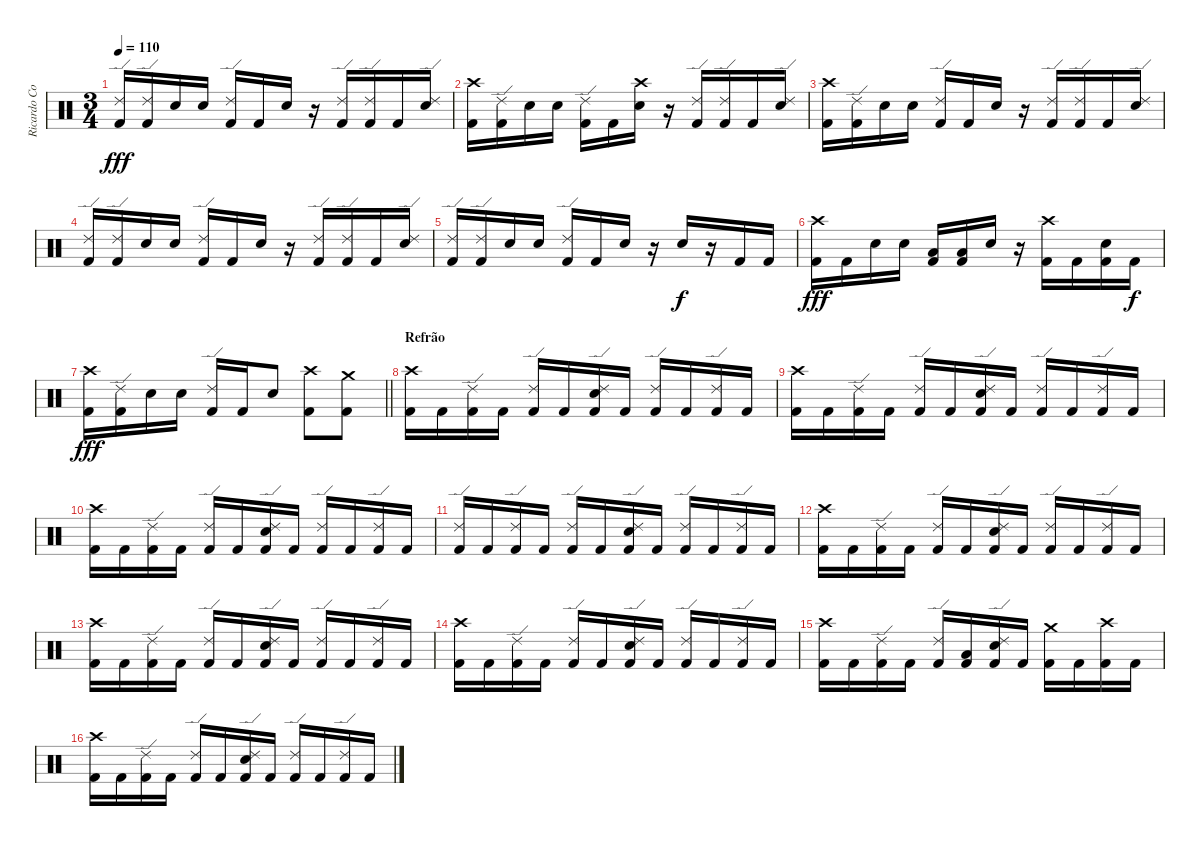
\track ("Ricardo Confessori" "Ricardo Co") {instrument percussion}
\staff {score}
\articulation defaults
\ts (3 4)
\tempo 110
\clef neutral
\ks c
("Ride (edge) 2" "Kick (hit) 2").16{dy fff} ("Ride (edge) 2" "Kick (hit) 2").16 "Electric Snare (hit)".16 "Electric Snare (hit)".16 ("Ride (edge) 2" "Kick (hit) 2").16 "Kick (hit) 2".16 "Electric Snare (hit)".16 r.16 ("Ride (edge) 2" "Kick (hit) 2").16 ("Ride (edge) 2" "Kick (hit) 2").16 "Kick (hit) 2".16 ("Ride (edge) 2" "Electric Snare (hit)").16 |
("Crash high (hit)" "Kick (hit) 2").16 ("Ride (edge) 2" "Kick (hit) 2").16 "Electric Snare (hit)".16 "Electric Snare (hit)".16 ("Ride (edge) 2" "Kick (hit) 2").16 "Kick (hit) 2".16 ("Crash high (hit)" "Electric Snare (hit)").16 r.16 ("Ride (edge) 2" "Kick (hit) 2").16 ("Ride (edge) 2" "Kick (hit) 2").16 "Kick (hit) 2".16 ("Ride (edge) 2" "Electric Snare (hit)").16 |
("Crash high (hit)" "Kick (hit) 2").16 ("Ride (edge) 2" "Kick (hit) 2").16 "Electric Snare (hit)".16 "Electric Snare (hit)".16 ("Ride (edge) 2" "Kick (hit) 2").16 "Kick (hit) 2".16 "Electric Snare (hit)".16 r.16 ("Ride (edge) 2" "Kick (hit) 2").16 ("Ride (edge) 2" "Kick (hit) 2").16 "Kick (hit) 2".16 ("Ride (edge) 2" "Electric Snare (hit)").16 |
("Ride (edge) 2" "Kick (hit) 2").16 ("Ride (edge) 2" "Kick (hit) 2").16 "Electric Snare (hit)".16 "Electric Snare (hit)".16 ("Ride (edge) 2" "Kick (hit) 2").16 "Kick (hit) 2".16 "Electric Snare (hit)".16 r.16 ("Ride (edge) 2" "Kick (hit) 2").16 ("Ride (edge) 2" "Kick (hit) 2").16 "Kick (hit) 2".16 ("Ride (edge) 2" "Electric Snare (hit)").16 |
("Ride (edge) 2" "Kick (hit) 2").16 ("Ride (edge) 2" "Kick (hit) 2").16 "Electric Snare (hit)".16 "Electric Snare (hit)".16 ("Ride (edge) 2" "Kick (hit) 2").16 "Kick (hit) 2".16 "Electric Snare (hit)".16 r.16 "Electric Snare (hit)".16{dy f} r.16 "Kick (hit) 2".16 "Kick (hit) 2".16 |
("Crash high (hit)" "Kick (hit) 2").16{dy fff} "Kick (hit) 2".16 "Electric Snare (hit)".16 "Electric Snare (hit)".16 ("Low Tom (hit)" "Kick (hit) 2").16 ("Low Tom (hit)" "Kick (hit) 2").16 "Electric Snare (hit)".16 r.16 ("Crash high (hit)" "Kick (hit) 2").16 "Kick (hit) 2".16 ("Electric Snare (hit)" "Kick (hit) 2").16 "Kick (hit) 2".16{dy f} |
\barLineRight lightlight
("Crash high (hit)" "Kick (hit) 2").16{dy fff} ("Ride (edge) 2" "Kick (hit) 2").16 "Electric Snare (hit)".16 "Electric Snare (hit)".16 ("Ride (edge) 2" "Kick (hit) 2").16 "Kick (hit) 2".16 "Electric Snare (hit)".8 ("Crash high (hit)" "Kick (hit) 2").8 ("Crash medium (hit)" "Kick (hit) 2").8 |
\section ("" "Refrão")
("Crash high (hit)" "Kick (hit) 2").16 "Kick (hit) 2".16 ("Ride (edge) 2" "Kick (hit) 2").16 "Kick (hit) 2".16 ("Ride (edge) 2" "Kick (hit) 2").16 "Kick (hit) 2".16 ("Ride (edge) 2" "Electric Snare (hit)" "Kick (hit) 2").16 "Kick (hit) 2".16 ("Ride (edge) 2" "Kick (hit) 2").16 "Kick (hit) 2".16 ("Ride (edge) 2" "Kick (hit) 2").16 "Kick (hit) 2".16 |
("Crash high (hit)" "Kick (hit) 2").16 "Kick (hit) 2".16 ("Ride (edge) 2" "Kick (hit) 2").16 "Kick (hit) 2".16 ("Ride (edge) 2" "Kick (hit) 2").16 "Kick (hit) 2".16 ("Ride (edge) 2" "Electric Snare (hit)" "Kick (hit) 2").16 "Kick (hit) 2".16 ("Ride (edge) 2" "Kick (hit) 2").16 "Kick (hit) 2".16 ("Ride (edge) 2" "Kick (hit) 2").16 "Kick (hit) 2".16 |
("Crash high (hit)" "Kick (hit) 2").16 "Kick (hit) 2".16 ("Ride (edge) 2" "Kick (hit) 2").16 "Kick (hit) 2".16 ("Ride (edge) 2" "Kick (hit) 2").16 "Kick (hit) 2".16 ("Ride (edge) 2" "Electric Snare (hit)" "Kick (hit) 2").16 "Kick (hit) 2".16 ("Ride (edge) 2" "Kick (hit) 2").16 "Kick (hit) 2".16 ("Ride (edge) 2" "Kick (hit) 2").16 "Kick (hit) 2".16 |
("Ride (edge) 2" "Kick (hit) 2").16 "Kick (hit) 2".16 ("Ride (edge) 2" "Kick (hit) 2").16 "Kick (hit) 2".16 ("Ride (edge) 2" "Kick (hit) 2").16 "Kick (hit) 2".16 ("Ride (edge) 2" "Electric Snare (hit)" "Kick (hit) 2").16 "Kick (hit) 2".16 ("Ride (edge) 2" "Kick (hit) 2").16 "Kick (hit) 2".16 ("Ride (edge) 2" "Kick (hit) 2").16 "Kick (hit) 2".16 |
("Crash high (hit)" "Kick (hit) 2").16 "Kick (hit) 2".16 ("Ride (edge) 2" "Kick (hit) 2").16 "Kick (hit) 2".16 ("Ride (edge) 2" "Kick (hit) 2").16 "Kick (hit) 2".16 ("Ride (edge) 2" "Electric Snare (hit)" "Kick (hit) 2").16 "Kick (hit) 2".16 ("Ride (edge) 2" "Kick (hit) 2").16 "Kick (hit) 2".16 ("Ride (edge) 2" "Kick (hit) 2").16 "Kick (hit) 2".16 |
("Crash high (hit)" "Kick (hit) 2").16 "Kick (hit) 2".16 ("Ride (edge) 2" "Kick (hit) 2").16 "Kick (hit) 2".16 ("Ride (edge) 2" "Kick (hit) 2").16 "Kick (hit) 2".16 ("Ride (edge) 2" "Electric Snare (hit)" "Kick (hit) 2").16 "Kick (hit) 2".16 ("Ride (edge) 2" "Kick (hit) 2").16 "Kick (hit) 2".16 ("Ride (edge) 2" "Kick (hit) 2").16 "Kick (hit) 2".16 |
("Crash high (hit)" "Kick (hit) 2").16 "Kick (hit) 2".16 ("Ride (edge) 2" "Kick (hit) 2").16 "Kick (hit) 2".16 ("Ride (edge) 2" "Kick (hit) 2").16 "Kick (hit) 2".16 ("Ride (edge) 2" "Electric Snare (hit)" "Kick (hit) 2").16 "Kick (hit) 2".16 ("Ride (edge) 2" "Kick (hit) 2").16 "Kick (hit) 2".16 ("Ride (edge) 2" "Kick (hit) 2").16 "Kick (hit) 2".16 |
("Crash high (hit)" "Kick (hit) 2").16 "Kick (hit) 2".16 ("Ride (edge) 2" "Kick (hit) 2").16 "Kick (hit) 2".16 ("Ride (edge) 2" "Kick (hit) 2").16 ("Low Tom (hit)" "Kick (hit) 2").16 ("Ride (edge) 2" "Electric Snare (hit)" "Kick (hit) 2").16 "Kick (hit) 2".16 ("Crash medium (hit)" "Kick (hit) 2").16 "Kick (hit) 2".16 ("Crash high (hit)" "Kick (hit) 2").16 "Kick (hit) 2".16 |
("Crash high (hit)" "Kick (hit) 2").16 "Kick (hit) 2".16 ("Ride (edge) 2" "Kick (hit) 2").16 "Kick (hit) 2".16 ("Ride (edge) 2" "Kick (hit) 2").16 "Kick (hit) 2".16 ("Ride (edge) 2" "Electric Snare (hit)" "Kick (hit) 2").16 "Kick (hit) 2".16 ("Ride (edge) 2" "Kick (hit) 2").16 "Kick (hit) 2".16 ("Ride (edge) 2" "Kick (hit) 2").16 "Kick (hit) 2".16
